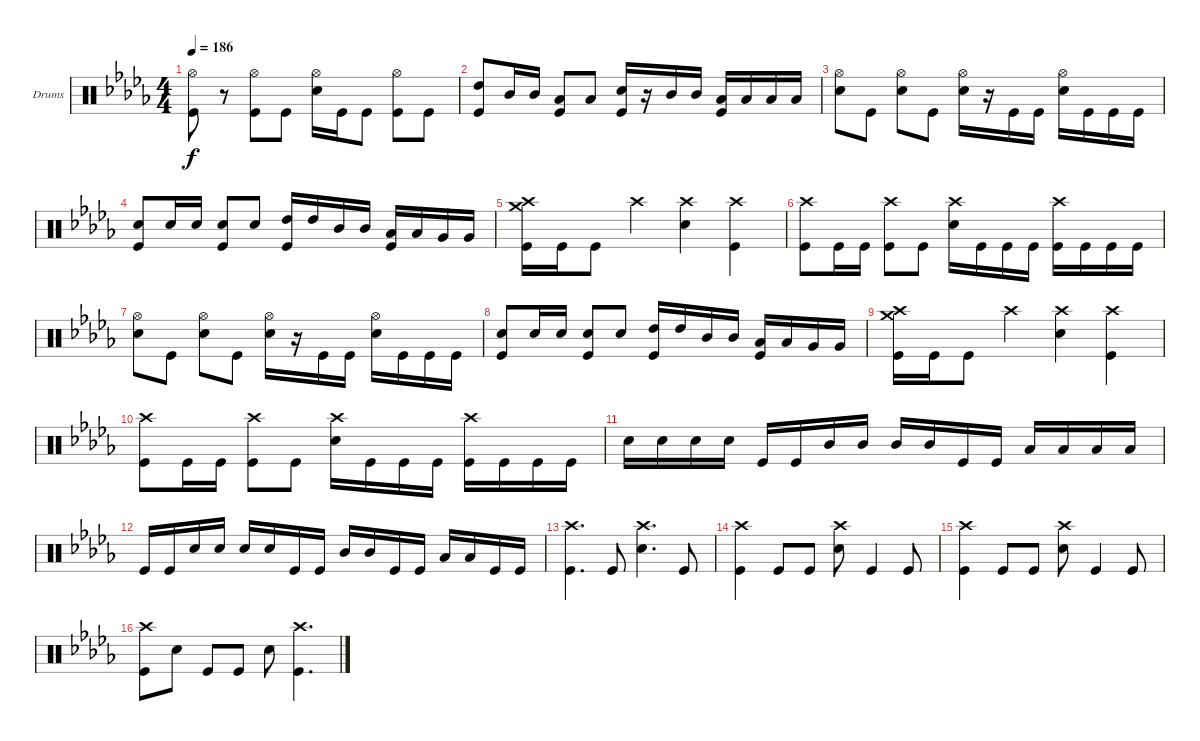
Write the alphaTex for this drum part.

\bracketExtendMode groupsimilarinstruments
\firstSystemTrackNameOrientation horizontal
\otherSystemsTrackNameOrientation horizontal
\track ("Drumkit" "Drums") {instrument percussion}
\staff {score}
\articulation defaults
\ts (4 4)
\tempo 186
\clef neutral
\ks db
("Hi-Hat (open)" "Kick (hit)").8{dy f} r.8 ("Hi-Hat (open)" "Kick (hit)").8 "Kick (hit)".8 ("Hi-Hat (open)" "Snare (hit) 2").16 "Kick (hit)".16 "Kick (hit)".8 ("Hi-Hat (open)" "Kick (hit)").8 "Kick (hit)".8 |
("High Tom (hit)" "Kick (hit)").8 "Mid Tom (hit)".16 "Mid Tom (hit)".16 ("Low Tom (hit)" "Kick (hit)").8 "Low Tom (hit)".8 ("Snare (hit) 2" "Kick (hit)").16 r.16 "Mid Tom (hit)".16 "Mid Tom (hit)".16 ("Low Tom (hit)" "Kick (hit)").16 "Low Tom (hit)".16 "Low Tom (hit)".16 "Low Tom (hit)".16 |
("Hi-Hat (open)" "Snare (hit) 2").8 "Kick (hit)".8 ("Hi-Hat (open)" "Snare (hit) 2").8 "Kick (hit)".8 ("Hi-Hat (open)" "Snare (hit) 2").16 r.16 "Kick (hit)".16 "Kick (hit)".16 ("Hi-Hat (open)" "Snare (hit) 2").16 "Kick (hit)".16 "Kick (hit)".16 "Kick (hit)".16 |
("Snare (hit) 2" "Kick (hit)").8 "Snare (hit) 2".16 "Snare (hit) 2".16 ("Snare (hit) 2" "Kick (hit)").8 "Snare (hit) 2".8 ("High Tom (hit)" "Kick (hit)").16 "High Tom (hit)".16 "Mid Tom (hit)".16 "Mid Tom (hit)".16 ("Low Tom (hit)" "Kick (hit)").16 "Low Tom (hit)".16 "Very Low Tom (hit)".16 "Very Low Tom (hit)".16 |
("Crash high (hit)" "Crash medium (hit)" "Kick (hit)").16 "Kick (hit)".16 "Kick (hit)".8 "Crash high (hit)".4 ("Crash high (hit)" "Snare (hit) 2").4 ("Crash high (hit)" "Kick (hit)").4 |
("Crash high (hit)" "Kick (hit)").8 "Kick (hit)".16 "Kick (hit)".16 ("Crash high (hit)" "Kick (hit)").8 "Kick (hit)".8 ("Crash high (hit)" "Snare (hit) 2").16 "Kick (hit)".16 "Kick (hit)".16 "Kick (hit)".16 ("Crash high (hit)" "Kick (hit)").16 "Kick (hit)".16 "Kick (hit)".16 "Kick (hit)".16 |
("Hi-Hat (open)" "Snare (hit) 2").8 "Kick (hit)".8 ("Hi-Hat (open)" "Snare (hit) 2").8 "Kick (hit)".8 ("Hi-Hat (open)" "Snare (hit) 2").16 r.16 "Kick (hit)".16 "Kick (hit)".16 ("Hi-Hat (open)" "Snare (hit) 2").16 "Kick (hit)".16 "Kick (hit)".16 "Kick (hit)".16 |
("Snare (hit) 2" "Kick (hit)").8 "Snare (hit) 2".16 "Snare (hit) 2".16 ("Snare (hit) 2" "Kick (hit)").8 "Snare (hit) 2".8 ("High Tom (hit)" "Kick (hit)").16 "High Tom (hit)".16 "Mid Tom (hit)".16 "Mid Tom (hit)".16 ("Low Tom (hit)" "Kick (hit)").16 "Low Tom (hit)".16 "Very Low Tom (hit)".16 "Very Low Tom (hit)".16 |
("Crash high (hit)" "Crash medium (hit)" "Kick (hit)").16 "Kick (hit)".16 "Kick (hit)".8 "Crash high (hit)".4 ("Crash high (hit)" "Snare (hit) 2").4 ("Crash high (hit)" "Kick (hit)").4 |
("Crash high (hit)" "Kick (hit)").8 "Kick (hit)".16 "Kick (hit)".16 ("Crash high (hit)" "Kick (hit)").8 "Kick (hit)".8 ("Crash high (hit)" "Snare (hit) 2").16 "Kick (hit)".16 "Kick (hit)".16 "Kick (hit)".16 ("Crash high (hit)" "Kick (hit)").16 "Kick (hit)".16 "Kick (hit)".16 "Kick (hit)".16 |
"Snare (hit) 2".16 "Snare (hit) 2".16 "Snare (hit) 2".16 "Snare (hit) 2".16 "Kick (hit)".16 "Kick (hit)".16 "Mid Tom (hit)".16 "Mid Tom (hit)".16 "Mid Tom (hit)".16 "Mid Tom (hit)".16 "Kick (hit)".16 "Kick (hit)".16 "Low Tom (hit)".16 "Low Tom (hit)".16 "Low Tom (hit)".16 "Low Tom (hit)".16 |
"Kick (hit)".16 "Kick (hit)".16 "Snare (hit) 2".16 "Snare (hit) 2".16 "Snare (hit) 2".16 "Snare (hit) 2".16 "Kick (hit)".16 "Kick (hit)".16 "Mid Tom (hit)".16 "Mid Tom (hit)".16 "Kick (hit)".16 "Kick (hit)".16 "Low Tom (hit)".16 "Low Tom (hit)".16 "Kick (hit)".16 "Kick (hit)".16 |
("Crash high (hit)" "Kick (hit)").4{d} "Kick (hit)".8 ("Crash high (hit)" "Snare (hit) 2").4{d} "Kick (hit)".8 |
("Crash high (hit)" "Kick (hit)").4 "Kick (hit)".8 "Kick (hit)".8 ("Crash high (hit)" "Snare (hit) 2").8 "Kick (hit)".4 "Kick (hit)".8 |
("Crash high (hit)" "Kick (hit)").4 "Kick (hit)".8 "Kick (hit)".8 ("Crash high (hit)" "Snare (hit) 2").8 "Kick (hit)".4 "Kick (hit)".8 |
("Crash high (hit)" "Kick (hit)").8 "Snare (hit) 2".8 "Kick (hit)".8 "Kick (hit)".8 "Snare (hit) 2".8 ("Crash high (hit)" "Kick (hit)").4{d}
